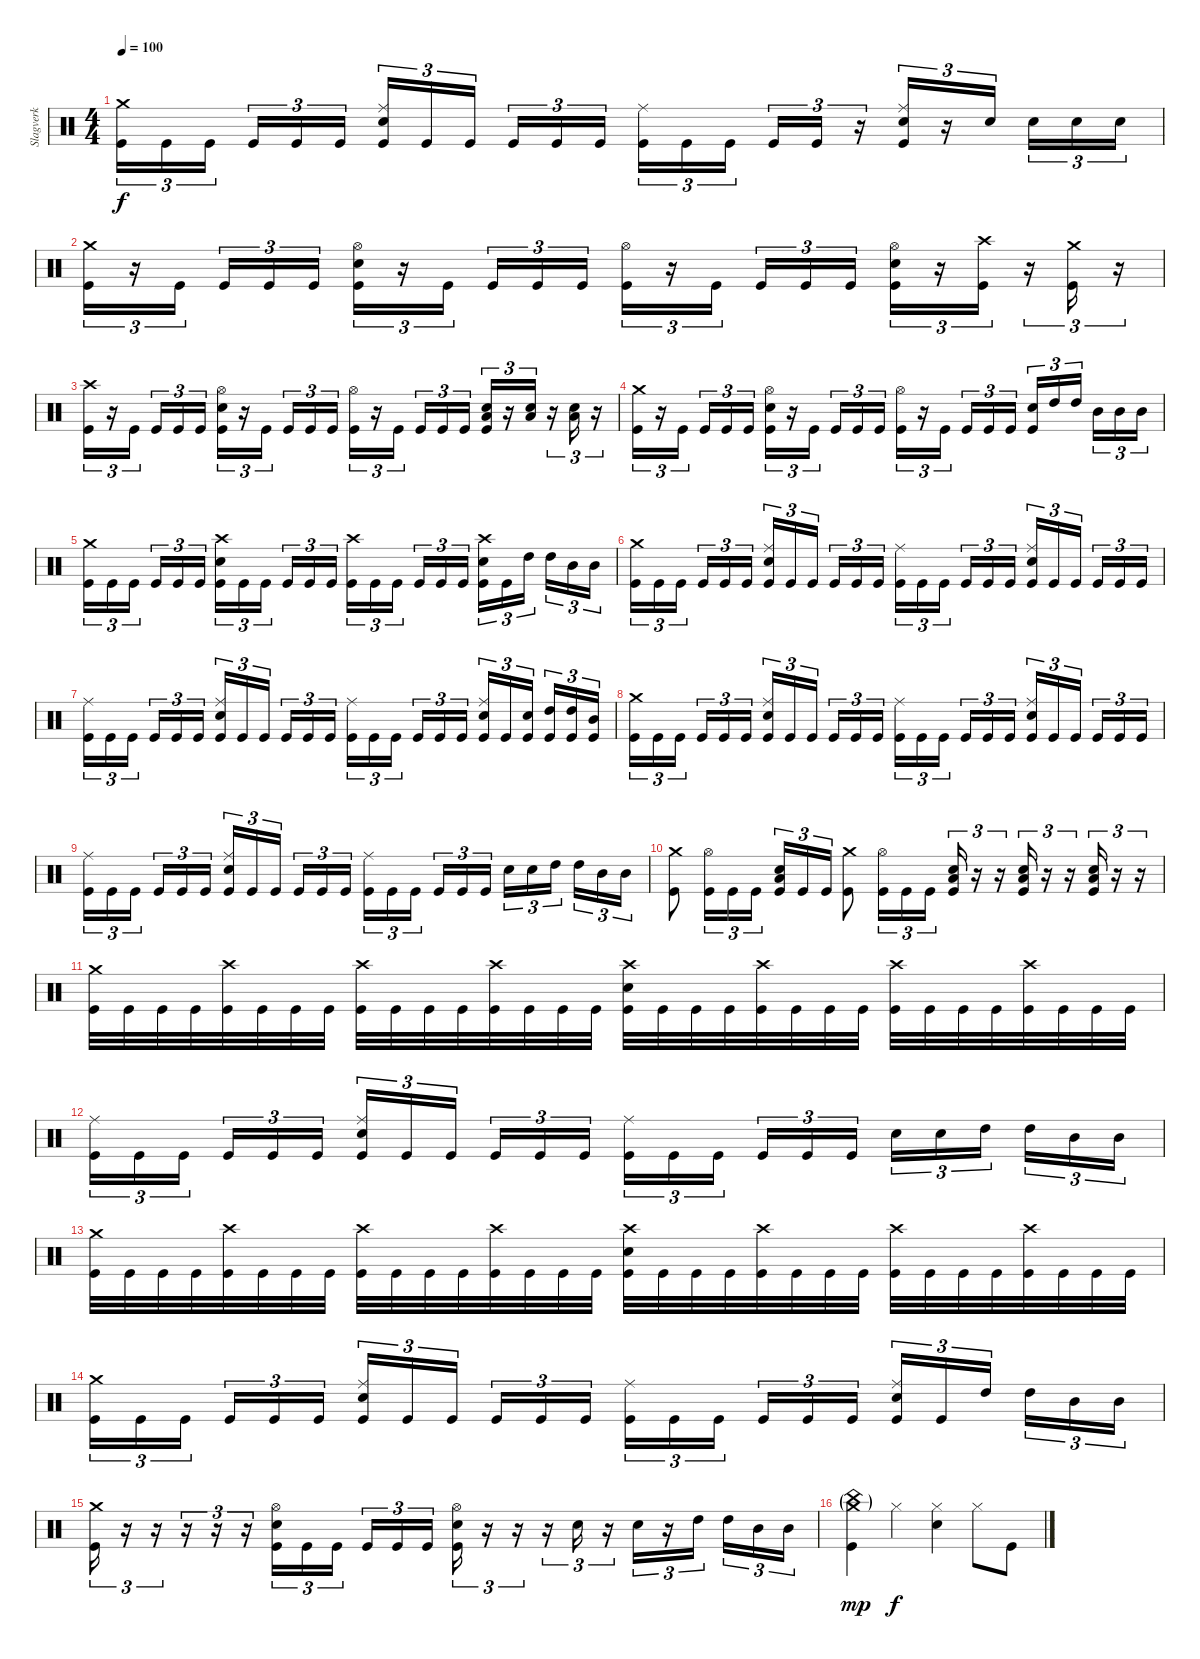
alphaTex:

\track ("Slagverk" "Slagverk") {solo instrument percussion}
\staff {score}
\articulation defaults
\ts (4 4)
\tempo 100
\clef neutral
\ks c
("Crash medium (hit)" "Kick (hit)").16{tu (3 2) dy f} "Kick (hit)".16{tu (3 2)} "Kick (hit)".16{tu (3 2) beam splitsecondary} "Kick (hit)".16{tu (3 2)} "Kick (hit)".16{tu (3 2)} "Kick (hit)".16{tu (3 2)} ("Ride (middle)" "Electric Snare (hit)" "Kick (hit)").16{tu (3 2)} "Kick (hit)".16{tu (3 2)} "Kick (hit)".16{tu (3 2) beam splitsecondary} "Kick (hit)".16{tu (3 2)} "Kick (hit)".16{tu (3 2)} "Kick (hit)".16{tu (3 2)} ("Ride (middle)" "Kick (hit)").16{tu (3 2)} "Kick (hit)".16{tu (3 2)} "Kick (hit)".16{tu (3 2) beam splitsecondary} "Kick (hit)".16{tu (3 2)} "Kick (hit)".16{tu (3 2)} r.16{tu (3 2)} ("Ride (middle)" "Electric Snare (hit)" "Kick (hit)").16{tu (3 2)} r.16{tu (3 2)} "Electric Snare (hit)".16{tu (3 2) beam splitsecondary} "Electric Snare (hit)".16{tu (3 2)} "Electric Snare (hit)".16{tu (3 2)} "Electric Snare (hit)".16{tu (3 2)} |
("Crash medium (hit)" "Kick (hit)").16{tu (3 2)} r.16{tu (3 2)} "Kick (hit)".16{tu (3 2) beam splitsecondary} "Kick (hit)".16{tu (3 2)} "Kick (hit)".16{tu (3 2)} "Kick (hit)".16{tu (3 2)} ("Hi-Hat (open)" "Electric Snare (hit)" "Kick (hit)").16{tu (3 2)} r.16{tu (3 2)} "Kick (hit)".16{tu (3 2) beam splitsecondary} "Kick (hit)".16{tu (3 2)} "Kick (hit)".16{tu (3 2)} "Kick (hit)".16{tu (3 2)} ("Hi-Hat (open)" "Kick (hit)").16{tu (3 2)} r.16{tu (3 2)} "Kick (hit)".16{tu (3 2) beam splitsecondary} "Kick (hit)".16{tu (3 2)} "Kick (hit)".16{tu (3 2)} "Kick (hit)".16{tu (3 2)} ("Hi-Hat (open)" "Electric Snare (hit)" "Kick (hit)").16{tu (3 2)} r.16{tu (3 2)} ("Crash high (hit)" "Kick (hit)").16{tu (3 2)} r.16{tu (3 2)} ("Crash medium (hit)" "Kick (hit)").16{tu (3 2)} r.16{tu (3 2)} |
("Crash high (hit)" "Kick (hit)").16{tu (3 2)} r.16{tu (3 2)} "Kick (hit)".16{tu (3 2) beam splitsecondary} "Kick (hit)".16{tu (3 2)} "Kick (hit)".16{tu (3 2)} "Kick (hit)".16{tu (3 2)} ("Hi-Hat (open)" "Electric Snare (hit)" "Kick (hit)").16{tu (3 2)} r.16{tu (3 2)} "Kick (hit)".16{tu (3 2) beam splitsecondary} "Kick (hit)".16{tu (3 2)} "Kick (hit)".16{tu (3 2)} "Kick (hit)".16{tu (3 2)} ("Hi-Hat (open)" "Kick (hit)").16{tu (3 2)} r.16{tu (3 2)} "Kick (hit)".16{tu (3 2) beam splitsecondary} "Kick (hit)".16{tu (3 2)} "Kick (hit)".16{tu (3 2)} "Kick (hit)".16{tu (3 2)} ("Low Floor Tom (hit)" "Electric Snare (hit)" "Kick (hit)").16{tu (3 2)} r.16{tu (3 2)} ("Low Floor Tom (hit)" "Electric Snare (hit)").16{tu (3 2)} r.16{tu (3 2)} ("Low Floor Tom (hit)" "Electric Snare (hit)").16{tu (3 2)} r.16{tu (3 2)} |
("Crash medium (hit)" "Kick (hit)").16{tu (3 2)} r.16{tu (3 2)} "Kick (hit)".16{tu (3 2) beam splitsecondary} "Kick (hit)".16{tu (3 2)} "Kick (hit)".16{tu (3 2)} "Kick (hit)".16{tu (3 2)} ("Hi-Hat (open)" "Electric Snare (hit)" "Kick (hit)").16{tu (3 2)} r.16{tu (3 2)} "Kick (hit)".16{tu (3 2) beam splitsecondary} "Kick (hit)".16{tu (3 2)} "Kick (hit)".16{tu (3 2)} "Kick (hit)".16{tu (3 2)} ("Hi-Hat (open)" "Kick (hit)").16{tu (3 2)} r.16{tu (3 2)} "Kick (hit)".16{tu (3 2) beam splitsecondary} "Kick (hit)".16{tu (3 2)} "Kick (hit)".16{tu (3 2)} "Kick (hit)".16{tu (3 2)} ("Electric Snare (hit)" "Kick (hit)").16{tu (3 2)} "High Tom (hit)".16{tu (3 2)} "High Tom (hit)".16{tu (3 2) beam splitsecondary} "Mid Tom (hit)".16{tu (3 2)} "Mid Tom (hit)".16{tu (3 2)} "Mid Tom (hit)".16{tu (3 2)} |
("Crash medium (hit)" "Kick (hit)").16{tu (3 2)} "Kick (hit)".16{tu (3 2)} "Kick (hit)".16{tu (3 2) beam splitsecondary} "Kick (hit)".16{tu (3 2)} "Kick (hit)".16{tu (3 2)} "Kick (hit)".16{tu (3 2)} ("Crash high (hit)" "Electric Snare (hit)" "Kick (hit)").16{tu (3 2)} "Kick (hit)".16{tu (3 2)} "Kick (hit)".16{tu (3 2) beam splitsecondary} "Kick (hit)".16{tu (3 2)} "Kick (hit)".16{tu (3 2)} "Kick (hit)".16{tu (3 2)} ("Crash high (hit)" "Kick (hit)").16{tu (3 2)} "Kick (hit)".16{tu (3 2)} "Kick (hit)".16{tu (3 2) beam splitsecondary} "Kick (hit)".16{tu (3 2)} "Kick (hit)".16{tu (3 2)} "Kick (hit)".16{tu (3 2)} ("Crash high (hit)" "Electric Snare (hit)" "Kick (hit)").16{tu (3 2)} "Kick (hit)".16{tu (3 2)} "High Tom (hit)".16{tu (3 2) beam splitsecondary} "High Tom (hit)".16{tu (3 2)} "Mid Tom (hit)".16{tu (3 2)} "Mid Tom (hit)".16{tu (3 2)} |
("Crash medium (hit)" "Kick (hit)").16{tu (3 2)} "Kick (hit)".16{tu (3 2)} "Kick (hit)".16{tu (3 2) beam splitsecondary} "Kick (hit)".16{tu (3 2)} "Kick (hit)".16{tu (3 2)} "Kick (hit)".16{tu (3 2)} ("Ride (middle)" "Electric Snare (hit)" "Kick (hit)").16{tu (3 2)} "Kick (hit)".16{tu (3 2)} "Kick (hit)".16{tu (3 2) beam splitsecondary} "Kick (hit)".16{tu (3 2)} "Kick (hit)".16{tu (3 2)} "Kick (hit)".16{tu (3 2)} ("Ride (middle)" "Kick (hit)").16{tu (3 2)} "Kick (hit)".16{tu (3 2)} "Kick (hit)".16{tu (3 2) beam splitsecondary} "Kick (hit)".16{tu (3 2)} "Kick (hit)".16{tu (3 2)} "Kick (hit)".16{tu (3 2)} ("Ride (middle)" "Electric Snare (hit)" "Kick (hit)").16{tu (3 2)} "Kick (hit)".16{tu (3 2)} "Kick (hit)".16{tu (3 2) beam splitsecondary} "Kick (hit)".16{tu (3 2)} "Kick (hit)".16{tu (3 2)} "Kick (hit)".16{tu (3 2)} |
("Ride (middle)" "Kick (hit)").16{tu (3 2)} "Kick (hit)".16{tu (3 2)} "Kick (hit)".16{tu (3 2) beam splitsecondary} "Kick (hit)".16{tu (3 2)} "Kick (hit)".16{tu (3 2)} "Kick (hit)".16{tu (3 2)} ("Ride (middle)" "Electric Snare (hit)" "Kick (hit)").16{tu (3 2)} "Kick (hit)".16{tu (3 2)} "Kick (hit)".16{tu (3 2) beam splitsecondary} "Kick (hit)".16{tu (3 2)} "Kick (hit)".16{tu (3 2)} "Kick (hit)".16{tu (3 2)} ("Ride (middle)" "Kick (hit)").16{tu (3 2)} "Kick (hit)".16{tu (3 2)} "Kick (hit)".16{tu (3 2) beam splitsecondary} "Kick (hit)".16{tu (3 2)} "Kick (hit)".16{tu (3 2)} "Kick (hit)".16{tu (3 2)} ("Ride (middle)" "Electric Snare (hit)" "Kick (hit)").16{tu (3 2)} "Kick (hit)".16{tu (3 2)} ("Electric Snare (hit)" "Kick (hit)").16{tu (3 2) beam splitsecondary} ("High Tom (hit)" "Kick (hit)").16{tu (3 2)} ("High Tom (hit)" "Kick (hit)").16{tu (3 2)} ("Mid Tom (hit)" "Kick (hit)").16{tu (3 2)} |
("Crash medium (hit)" "Kick (hit)").16{tu (3 2)} "Kick (hit)".16{tu (3 2)} "Kick (hit)".16{tu (3 2) beam splitsecondary} "Kick (hit)".16{tu (3 2)} "Kick (hit)".16{tu (3 2)} "Kick (hit)".16{tu (3 2)} ("Ride (middle)" "Electric Snare (hit)" "Kick (hit)").16{tu (3 2)} "Kick (hit)".16{tu (3 2)} "Kick (hit)".16{tu (3 2) beam splitsecondary} "Kick (hit)".16{tu (3 2)} "Kick (hit)".16{tu (3 2)} "Kick (hit)".16{tu (3 2)} ("Ride (middle)" "Kick (hit)").16{tu (3 2)} "Kick (hit)".16{tu (3 2)} "Kick (hit)".16{tu (3 2) beam splitsecondary} "Kick (hit)".16{tu (3 2)} "Kick (hit)".16{tu (3 2)} "Kick (hit)".16{tu (3 2)} ("Ride (middle)" "Electric Snare (hit)" "Kick (hit)").16{tu (3 2)} "Kick (hit)".16{tu (3 2)} "Kick (hit)".16{tu (3 2) beam splitsecondary} "Kick (hit)".16{tu (3 2)} "Kick (hit)".16{tu (3 2)} "Kick (hit)".16{tu (3 2)} |
("Ride (middle)" "Kick (hit)").16{tu (3 2)} "Kick (hit)".16{tu (3 2)} "Kick (hit)".16{tu (3 2) beam splitsecondary} "Kick (hit)".16{tu (3 2)} "Kick (hit)".16{tu (3 2)} "Kick (hit)".16{tu (3 2)} ("Ride (middle)" "Electric Snare (hit)" "Kick (hit)").16{tu (3 2)} "Kick (hit)".16{tu (3 2)} "Kick (hit)".16{tu (3 2) beam splitsecondary} "Kick (hit)".16{tu (3 2)} "Kick (hit)".16{tu (3 2)} "Kick (hit)".16{tu (3 2)} ("Ride (middle)" "Kick (hit)").16{tu (3 2)} "Kick (hit)".16{tu (3 2)} "Kick (hit)".16{tu (3 2) beam splitsecondary} "Kick (hit)".16{tu (3 2)} "Kick (hit)".16{tu (3 2)} "Kick (hit)".16{tu (3 2)} "Electric Snare (hit)".16{tu (3 2)} "Electric Snare (hit)".16{tu (3 2)} "High Tom (hit)".16{tu (3 2) beam splitsecondary} "High Tom (hit)".16{tu (3 2)} "Mid Tom (hit)".16{tu (3 2)} "Mid Tom (hit)".16{tu (3 2)} |
("Crash medium (hit)" "Kick (hit)").8 ("Hi-Hat (open)" "Kick (hit)").16{tu (3 2)} "Kick (hit)".16{tu (3 2)} "Kick (hit)".16{tu (3 2)} ("Low Tom (hit)" "Electric Snare (hit)" "Kick (hit)").16{tu (3 2)} "Kick (hit)".16{tu (3 2)} "Kick (hit)".16{tu (3 2)} ("Crash medium (hit)" "Kick (hit)").8 ("Hi-Hat (open)" "Kick (hit)").16{tu (3 2)} "Kick (hit)".16{tu (3 2)} "Kick (hit)".16{tu (3 2) beam splitsecondary} ("Low Floor Tom (hit)" "Electric Snare (hit)" "Kick (hit)").16{tu (3 2)} r.16{tu (3 2)} r.16{tu (3 2)} ("Low Floor Tom (hit)" "Electric Snare (hit)" "Kick (hit)").16{tu (3 2)} r.16{tu (3 2)} r.16{tu (3 2)} ("Low Floor Tom (hit)" "Electric Snare (hit)" "Kick (hit)").16{tu (3 2)} r.16{tu (3 2)} r.16{tu (3 2)} |
("Crash medium (hit)" "Kick (hit)").32 "Kick (hit)".32 "Kick (hit)".32 "Kick (hit)".32 ("Crash high (hit)" "Kick (hit)").32 "Kick (hit)".32 "Kick (hit)".32 "Kick (hit)".32 ("Crash high (hit)" "Kick (hit)").32 "Kick (hit)".32 "Kick (hit)".32 "Kick (hit)".32 ("Crash high (hit)" "Kick (hit)").32 "Kick (hit)".32 "Kick (hit)".32 "Kick (hit)".32 ("Crash high (hit)" "Electric Snare (hit)" "Kick (hit)").32 "Kick (hit)".32 "Kick (hit)".32 "Kick (hit)".32 ("Crash high (hit)" "Kick (hit)").32 "Kick (hit)".32 "Kick (hit)".32 "Kick (hit)".32 ("Crash high (hit)" "Kick (hit)").32 "Kick (hit)".32 "Kick (hit)".32 "Kick (hit)".32 ("Crash high (hit)" "Kick (hit)").32 "Kick (hit)".32 "Kick (hit)".32 "Kick (hit)".32 |
("Ride (middle)" "Kick (hit)").16{tu (3 2)} "Kick (hit)".16{tu (3 2)} "Kick (hit)".16{tu (3 2) beam splitsecondary} "Kick (hit)".16{tu (3 2)} "Kick (hit)".16{tu (3 2)} "Kick (hit)".16{tu (3 2)} ("Ride (middle)" "Electric Snare (hit)" "Kick (hit)").16{tu (3 2)} "Kick (hit)".16{tu (3 2)} "Kick (hit)".16{tu (3 2) beam splitsecondary} "Kick (hit)".16{tu (3 2)} "Kick (hit)".16{tu (3 2)} "Kick (hit)".16{tu (3 2)} ("Ride (middle)" "Kick (hit)").16{tu (3 2)} "Kick (hit)".16{tu (3 2)} "Kick (hit)".16{tu (3 2) beam splitsecondary} "Kick (hit)".16{tu (3 2)} "Kick (hit)".16{tu (3 2)} "Kick (hit)".16{tu (3 2)} "Electric Snare (hit)".16{tu (3 2)} "Electric Snare (hit)".16{tu (3 2)} "High Tom (hit)".16{tu (3 2) beam splitsecondary} "High Tom (hit)".16{tu (3 2)} "Mid Tom (hit)".16{tu (3 2)} "Mid Tom (hit)".16{tu (3 2)} |
("Crash medium (hit)" "Kick (hit)").32 "Kick (hit)".32 "Kick (hit)".32 "Kick (hit)".32 ("Crash high (hit)" "Kick (hit)").32 "Kick (hit)".32 "Kick (hit)".32 "Kick (hit)".32 ("Crash high (hit)" "Kick (hit)").32 "Kick (hit)".32 "Kick (hit)".32 "Kick (hit)".32 ("Crash high (hit)" "Kick (hit)").32 "Kick (hit)".32 "Kick (hit)".32 "Kick (hit)".32 ("Crash high (hit)" "Electric Snare (hit)" "Kick (hit)").32 "Kick (hit)".32 "Kick (hit)".32 "Kick (hit)".32 ("Crash high (hit)" "Kick (hit)").32 "Kick (hit)".32 "Kick (hit)".32 "Kick (hit)".32 ("Crash high (hit)" "Kick (hit)").32 "Kick (hit)".32 "Kick (hit)".32 "Kick (hit)".32 ("Crash high (hit)" "Kick (hit)").32 "Kick (hit)".32 "Kick (hit)".32 "Kick (hit)".32 |
("Crash medium (hit)" "Kick (hit)").16{tu (3 2)} "Kick (hit)".16{tu (3 2)} "Kick (hit)".16{tu (3 2) beam splitsecondary} "Kick (hit)".16{tu (3 2)} "Kick (hit)".16{tu (3 2)} "Kick (hit)".16{tu (3 2)} ("Ride (middle)" "Electric Snare (hit)" "Kick (hit)").16{tu (3 2)} "Kick (hit)".16{tu (3 2)} "Kick (hit)".16{tu (3 2) beam splitsecondary} "Kick (hit)".16{tu (3 2)} "Kick (hit)".16{tu (3 2)} "Kick (hit)".16{tu (3 2)} ("Ride (middle)" "Kick (hit)").16{tu (3 2)} "Kick (hit)".16{tu (3 2)} "Kick (hit)".16{tu (3 2) beam splitsecondary} "Kick (hit)".16{tu (3 2)} "Kick (hit)".16{tu (3 2)} "Kick (hit)".16{tu (3 2)} ("Ride (middle)" "Electric Snare (hit)" "Kick (hit)").16{tu (3 2)} "Kick (hit)".16{tu (3 2)} "High Tom (hit)".16{tu (3 2) beam splitsecondary} "High Tom (hit)".16{tu (3 2)} "Mid Tom (hit)".16{tu (3 2)} "Mid Tom (hit)".16{tu (3 2)} |
("Crash medium (hit)" "Kick (hit)").16{tu (3 2)} r.16{tu (3 2)} r.16{tu (3 2)} r.16{tu (3 2)} r.16{tu (3 2)} r.16{tu (3 2)} ("Hi-Hat (open)" "Electric Snare (hit)" "Kick (hit)").16{tu (3 2)} "Kick (hit)".16{tu (3 2)} "Kick (hit)".16{tu (3 2) beam splitsecondary} "Kick (hit)".16{tu (3 2)} "Kick (hit)".16{tu (3 2)} "Kick (hit)".16{tu (3 2)} ("Hi-Hat (open)" "Electric Snare (hit)" "Kick (hit)").16{tu (3 2)} r.16{tu (3 2)} r.16{tu (3 2)} r.16{tu (3 2)} "Electric Snare (hit)".16{tu (3 2)} r.16{tu (3 2)} "Electric Snare (hit)".16{tu (3 2)} r.16{tu (3 2)} "High Tom (hit)".16{tu (3 2) beam splitsecondary} "High Tom (hit)".16{tu (3 2)} "Mid Tom (hit)".16{tu (3 2)} "Mid Tom (hit)".16{tu (3 2)} |
("Crash medium (hit)"{g} "China (hit)"{g} "Kick (hit)").4{dy mp} "Hi-Hat (closed)".4{dy f} ("Hi-Hat (closed)" "Electric Snare (hit)").4 "Hi-Hat (closed)".8 "Kick (hit)".8
